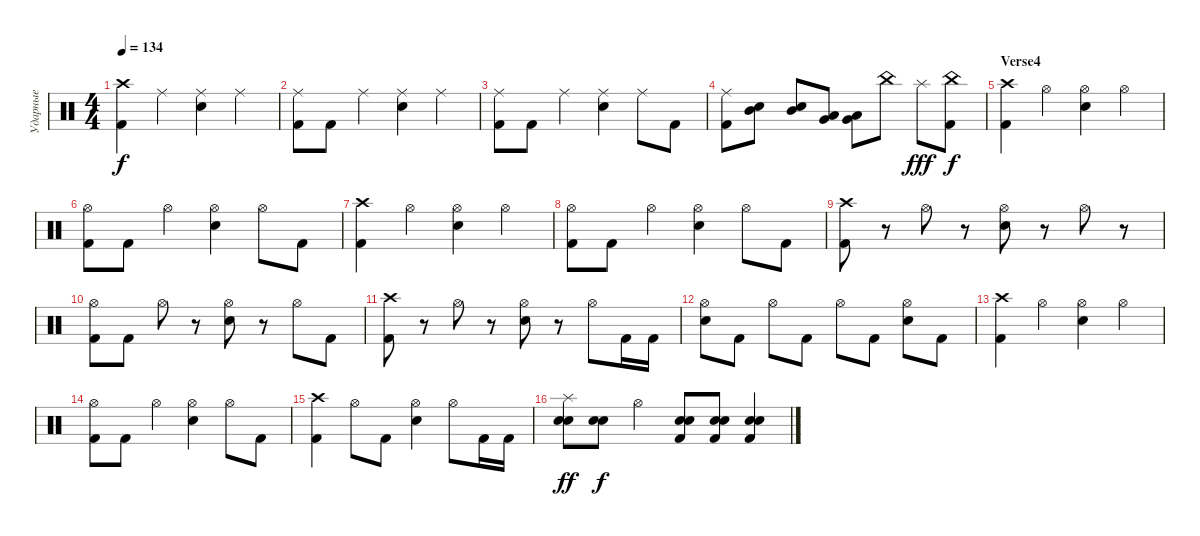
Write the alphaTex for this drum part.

\track ("Ударные" "Ударные") {instrument percussion}
\staff {score}
\articulation defaults
\ts (4 4)
\tempo 134
\clef neutral
\ks c
("Crash high (hit)" "Kick (hit) 2").4{dy f} "Ride (middle)".4 ("Ride (middle)" "Electric Snare (hit)").4 "Ride (middle)".4 |
("Ride (middle)" "Kick (hit) 2").8 "Kick (hit) 2".8 "Ride (middle)".4 ("Ride (middle)" "Electric Snare (hit)").4 "Ride (middle)".4 |
("Ride (middle)" "Kick (hit) 2").8 "Kick (hit) 2".8 "Ride (middle)".4 ("Ride (middle)" "Electric Snare (hit)").4 "Ride (middle)".8 "Kick (hit) 2".8 |
("Ride (middle)" "Kick (hit) 2").8 ("Electric Snare (hit)" "Mid Tom (hit)").8 ("Electric Snare (hit)" "Mid Tom (hit)").8 ("Very Low Tom (hit)" "Low Tom (hit)").8 ("Very Low Tom (hit)" "Low Tom (hit)").8 "China (hit)".8 "Splash (hit)".8{dy fff} ("China (hit)" "Kick (hit) 2").8{dy f} |
\section ("" "Verse4")
("Crash high (hit)" "Kick (hit) 2").4 "Hi-Hat (open)".4 ("Hi-Hat (open)" "Electric Snare (hit)").4 "Hi-Hat (open)".4 |
("Hi-Hat (open)" "Kick (hit) 2").8 "Kick (hit) 2".8 "Hi-Hat (open)".4 ("Hi-Hat (open)" "Electric Snare (hit)").4 "Hi-Hat (open)".8 "Kick (hit) 2".8 |
("Crash high (hit)" "Kick (hit) 2").4 "Hi-Hat (open)".4 ("Hi-Hat (open)" "Electric Snare (hit)").4 "Hi-Hat (open)".4 |
("Hi-Hat (open)" "Kick (hit) 2").8 "Kick (hit) 2".8 "Hi-Hat (open)".4 ("Hi-Hat (open)" "Electric Snare (hit)").4 "Hi-Hat (open)".8 "Kick (hit) 2".8 |
("Crash high (hit)" "Kick (hit) 2").8 r.8 "Hi-Hat (open)".8 r.8 ("Hi-Hat (open)" "Electric Snare (hit)").8 r.8 "Hi-Hat (open)".8 r.8 |
("Hi-Hat (open)" "Kick (hit) 2").8 "Kick (hit) 2".8 "Hi-Hat (open)".8 r.8 ("Hi-Hat (open)" "Electric Snare (hit)").8 r.8 "Hi-Hat (open)".8 "Kick (hit) 2".8 |
("Crash high (hit)" "Kick (hit) 2").8 r.8 "Hi-Hat (open)".8 r.8 ("Hi-Hat (open)" "Electric Snare (hit)").8 r.8 "Hi-Hat (open)".8 "Kick (hit) 2".16 "Kick (hit) 2".16 |
("Hi-Hat (open)" "Electric Snare (hit)").8 "Kick (hit) 2".8 "Hi-Hat (open)".8 "Kick (hit) 2".8 "Hi-Hat (open)".8 "Kick (hit) 2".8 ("Hi-Hat (open)" "Electric Snare (hit)").8 "Kick (hit) 2".8 |
("Crash high (hit)" "Kick (hit) 2").4 "Hi-Hat (open)".4 ("Hi-Hat (open)" "Electric Snare (hit)").4 "Hi-Hat (open)".4 |
("Hi-Hat (open)" "Kick (hit) 2").8 "Kick (hit) 2".8 "Hi-Hat (open)".4 ("Hi-Hat (open)" "Electric Snare (hit)").4 "Hi-Hat (open)".8 "Kick (hit) 2".8 |
("Crash high (hit)" "Kick (hit) 2").4 "Hi-Hat (open)".8 "Kick (hit) 2".8 ("Hi-Hat (open)" "Electric Snare (hit)").4 "Hi-Hat (open)".8 "Kick (hit) 2".16 "Kick (hit) 2".16 |
("Splash (hit)" "Electric Snare (hit)" "Electric Snare (hit)").8{dy ff} ("Electric Snare (hit)" "Electric Snare (hit)").8{dy f} "Hi-Hat (open)".4 ("Electric Snare (hit)" "Electric Snare (hit)" "Kick (hit) 2").8 ("Electric Snare (hit)" "Electric Snare (hit)" "Kick (hit) 2").8 ("Electric Snare (hit)" "Electric Snare (hit)" "Kick (hit) 2").4
